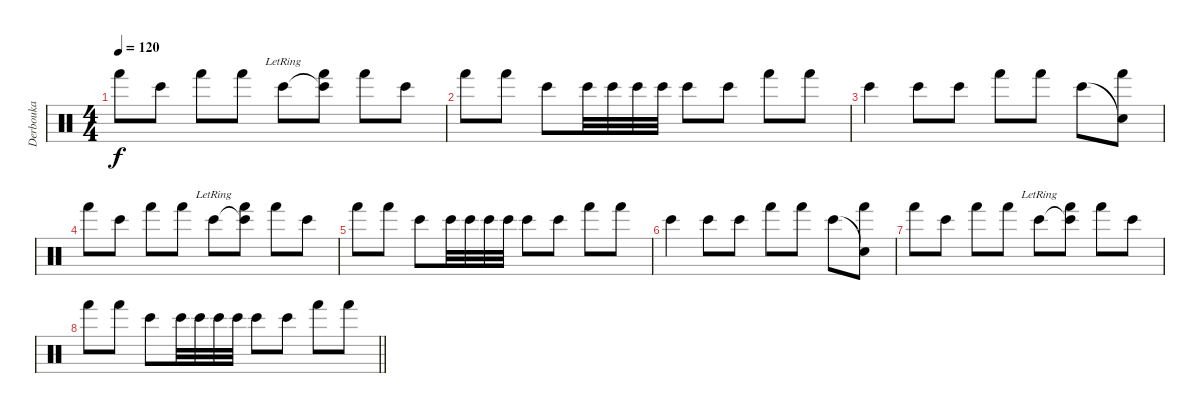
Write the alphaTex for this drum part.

\track ("Derbouka" "Derbouka") {instrument percussion}
\staff {score}
\articulation defaults
\ts (4 4)
\tempo 120
\clef neutral
\ks c "Hand (hit)".8{dy f} "Bongo High (hit)".8 "Hand (hit)".8 "Hand (hit)".8 "Bongo High (hit)"{lr}.8
("Bongo High (hit)"{t} "Hand (hit)").8 "Hand (hit)".8 "Bongo High (hit)".8 |
"Hand (hit)".8 "Hand (hit)".8 "Bongo High (hit)".8 "Bongo High (hit)".32 "Bongo High (hit)".32 "Bongo High (hit)".32 "Bongo High (hit)".32 "Bongo High (hit)".8 "Bongo High (hit)".8 "Hand (hit)".8 "Hand (hit)".8 |
"Bongo High (hit)".4 "Bongo High (hit)".8 "Bongo High (hit)".8 "Hand (hit)".8 "Hand (hit)".8 "Bongo High (hit)".8 ("Snare (hit)"{t} "Hand (hit)").8 |
"Hand (hit)".8 "Bongo High (hit)".8 "Hand (hit)".8 "Hand (hit)".8 "Bongo High (hit)"{lr}.8 ("Bongo High (hit)"{t} "Hand (hit)").8 "Hand (hit)".8 "Bongo High (hit)".8 |
"Hand (hit)".8 "Hand (hit)".8 "Bongo High (hit)".8 "Bongo High (hit)".32 "Bongo High (hit)".32 "Bongo High (hit)".32 "Bongo High (hit)".32 "Bongo High (hit)".8 "Bongo High (hit)".8 "Hand (hit)".8 "Hand (hit)".8 |
"Bongo High (hit)".4 "Bongo High (hit)".8 "Bongo High (hit)".8 "Hand (hit)".8 "Hand (hit)".8 "Bongo High (hit)".8 ("Snare (hit)"{t} "Hand (hit)").8 |
"Hand (hit)".8 "Bongo High (hit)".8 "Hand (hit)".8 "Hand (hit)".8 "Bongo High (hit)"{lr}.8 ("Bongo High (hit)"{t} "Hand (hit)").8 "Hand (hit)".8 "Bongo High (hit)".8 |
\barLineRight lightlight "Hand (hit)".8 "Hand (hit)".8 "Bongo High (hit)".8 "Bongo High (hit)".32 "Bongo High (hit)".32 "Bongo High (hit)".32 "Bongo High (hit)".32 "Bongo High (hit)".8 "Bongo High (hit)".8 "Hand (hit)".8 "Hand (hit)".8
